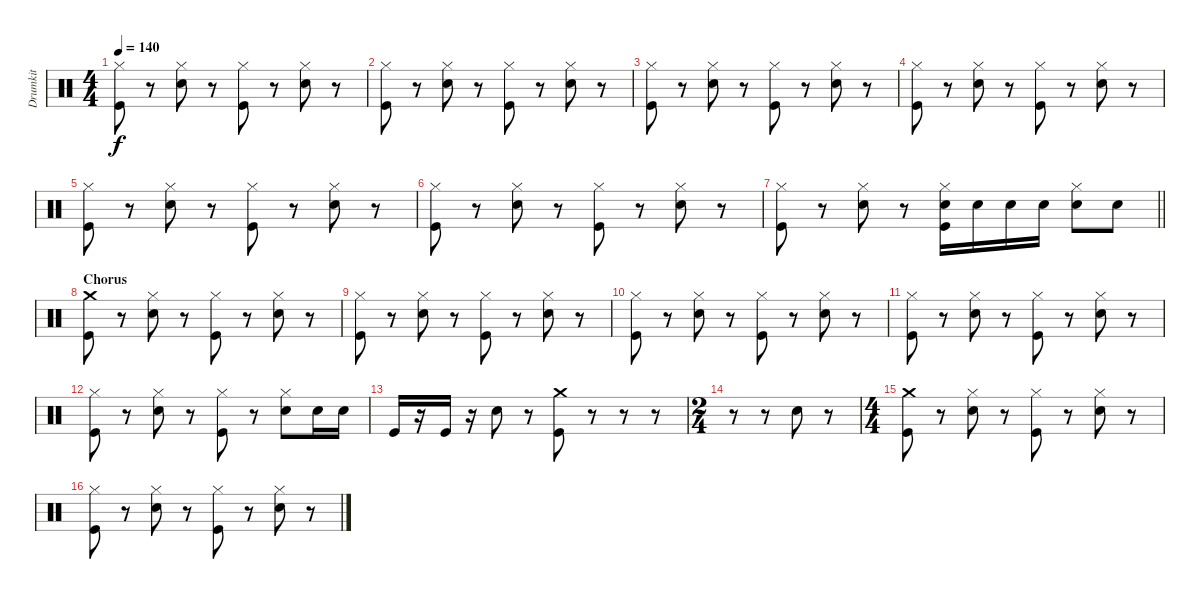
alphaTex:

\track ("Drumkit" "Drumkit") {instrument percussion}
\staff {score}
\articulation defaults
\ts (4 4)
\tempo 140
\clef neutral
\ks c
("Hi-Hat (closed)" "Kick (hit)").8{dy f} r.8 ("Hi-Hat (closed)" "Snare (hit) 2").8 r.8 ("Hi-Hat (closed)" "Kick (hit)").8 r.8 ("Hi-Hat (closed)" "Snare (hit) 2").8 r.8 |
("Hi-Hat (closed)" "Kick (hit)").8 r.8 ("Hi-Hat (closed)" "Snare (hit) 2").8 r.8 ("Hi-Hat (closed)" "Kick (hit)").8 r.8 ("Hi-Hat (closed)" "Snare (hit) 2").8 r.8 |
("Hi-Hat (closed)" "Kick (hit)").8 r.8 ("Hi-Hat (closed)" "Snare (hit) 2").8 r.8 ("Hi-Hat (closed)" "Kick (hit)").8 r.8 ("Hi-Hat (closed)" "Snare (hit) 2").8 r.8 |
("Hi-Hat (closed)" "Kick (hit)").8 r.8 ("Hi-Hat (closed)" "Snare (hit) 2").8 r.8 ("Hi-Hat (closed)" "Kick (hit)").8 r.8 ("Hi-Hat (closed)" "Snare (hit) 2").8 r.8 |
("Hi-Hat (closed)" "Kick (hit)").8 r.8 ("Hi-Hat (closed)" "Snare (hit) 2").8 r.8 ("Hi-Hat (closed)" "Kick (hit)").8 r.8 ("Hi-Hat (closed)" "Snare (hit) 2").8 r.8 |
("Hi-Hat (closed)" "Kick (hit)").8 r.8 ("Hi-Hat (closed)" "Snare (hit) 2").8 r.8 ("Hi-Hat (closed)" "Kick (hit)").8 r.8 ("Hi-Hat (closed)" "Snare (hit) 2").8 r.8 |
\barLineRight lightlight
("Hi-Hat (closed)" "Kick (hit)").8 r.8 ("Hi-Hat (closed)" "Snare (hit) 2").8 r.8 ("Hi-Hat (closed)" "Snare (hit) 2" "Kick (hit)").16 "Snare (hit) 2".16 "Snare (hit) 2".16 "Snare (hit) 2".16 ("Hi-Hat (closed)" "Snare (hit) 2").8 "Snare (hit) 2".8 |
\section ("" "Chorus")
("Crash medium (hit)" "Kick (hit)").8 r.8 ("Hi-Hat (closed)" "Snare (hit) 2").8 r.8 ("Hi-Hat (closed)" "Kick (hit)").8 r.8 ("Hi-Hat (closed)" "Snare (hit) 2").8 r.8 |
("Hi-Hat (closed)" "Kick (hit)").8 r.8 ("Hi-Hat (closed)" "Snare (hit) 2").8 r.8 ("Hi-Hat (closed)" "Kick (hit)").8 r.8 ("Hi-Hat (closed)" "Snare (hit) 2").8 r.8 |
("Hi-Hat (closed)" "Kick (hit)").8 r.8 ("Hi-Hat (closed)" "Snare (hit) 2").8 r.8 ("Hi-Hat (closed)" "Kick (hit)").8 r.8 ("Hi-Hat (closed)" "Snare (hit) 2").8 r.8 |
("Hi-Hat (closed)" "Kick (hit)").8 r.8 ("Hi-Hat (closed)" "Snare (hit) 2").8 r.8 ("Hi-Hat (closed)" "Kick (hit)").8 r.8 ("Hi-Hat (closed)" "Snare (hit) 2").8 r.8 |
("Hi-Hat (closed)" "Kick (hit)").8 r.8 ("Hi-Hat (closed)" "Snare (hit) 2").8 r.8 ("Hi-Hat (closed)" "Kick (hit)").8 r.8 ("Hi-Hat (closed)" "Snare (hit) 2").8 "Snare (hit) 2".16 "Snare (hit) 2".16 |
"Kick (hit)".16 r.16 "Kick (hit)".16 r.16 "Snare (hit) 2".8 r.8 ("Crash medium (hit)" "Kick (hit)").8 r.8 r.8 r.8 |
\ts (2 4)
r.8 r.8 "Snare (hit) 2".8 r.8 |
\ts (4 4)
("Crash medium (hit)" "Kick (hit)").8 r.8 ("Hi-Hat (closed)" "Snare (hit) 2").8 r.8 ("Hi-Hat (closed)" "Kick (hit)").8 r.8 ("Hi-Hat (closed)" "Snare (hit) 2").8 r.8 |
("Hi-Hat (closed)" "Kick (hit)").8 r.8 ("Hi-Hat (closed)" "Snare (hit) 2").8 r.8 ("Hi-Hat (closed)" "Kick (hit)").8 r.8 ("Hi-Hat (closed)" "Snare (hit) 2").8 r.8
